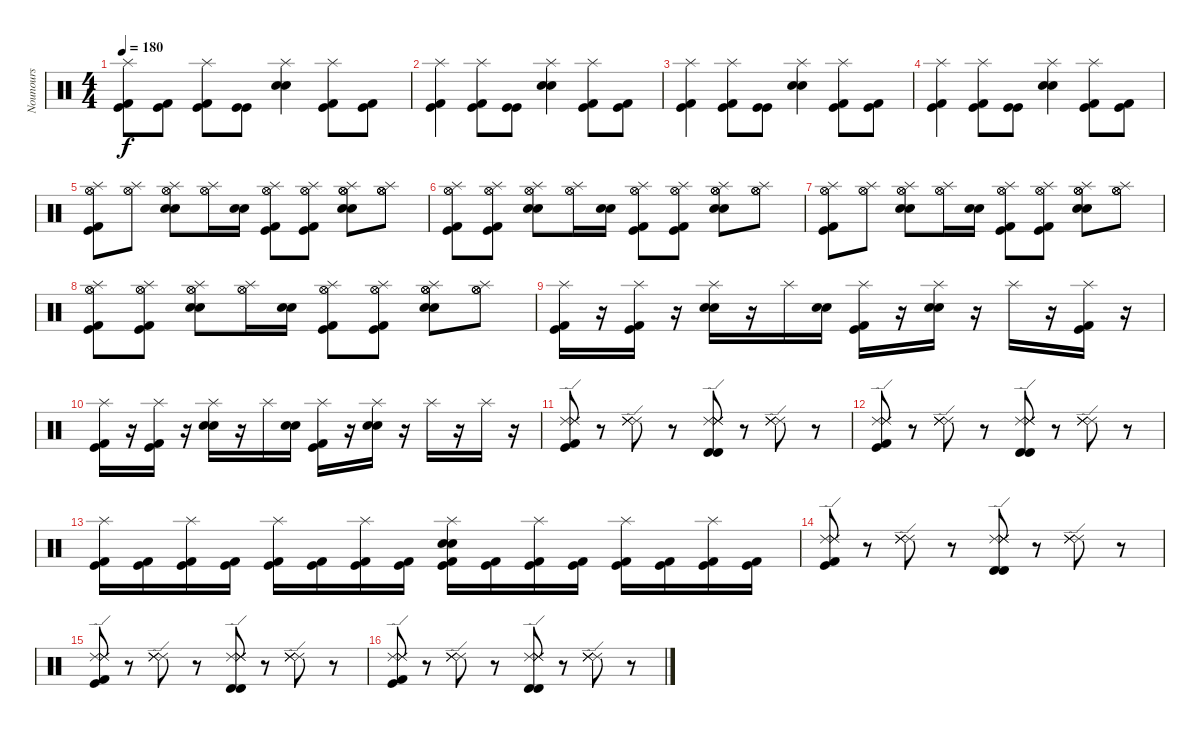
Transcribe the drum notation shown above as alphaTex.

\track ("Nounours" "Nounours") {instrument percussion}
\staff {score}
\articulation defaults
\ts (4 4)
\tempo 180
\clef neutral
\ks c
("Splash (hit)" "Kick (hit) 2" "Kick (hit)").8{dy f} ("Kick (hit) 2" "Kick (hit)").8 ("Splash (hit)" "Kick (hit)" "Kick (hit) 2").8 ("Kick (hit)" "Kick (hit)").8 ("Splash (hit)" "Snare (hit) 2" "Electric Snare (hit)").4 ("Splash (hit)" "Kick (hit) 2" "Kick (hit)").8 ("Kick (hit) 2" "Kick (hit)").8 |
("Splash (hit)" "Kick (hit) 2" "Kick (hit)").4 ("Splash (hit)" "Kick (hit)" "Kick (hit) 2").8 ("Kick (hit)" "Kick (hit)").8 ("Splash (hit)" "Snare (hit) 2" "Electric Snare (hit)").4 ("Splash (hit)" "Kick (hit) 2" "Kick (hit)").8 ("Kick (hit) 2" "Kick (hit)").8 |
("Splash (hit)" "Kick (hit) 2" "Kick (hit)").4 ("Splash (hit)" "Kick (hit)" "Kick (hit) 2").8 ("Kick (hit)" "Kick (hit)").8 ("Splash (hit)" "Snare (hit) 2" "Electric Snare (hit)").4 ("Splash (hit)" "Kick (hit) 2" "Kick (hit)").8 ("Kick (hit) 2" "Kick (hit)").8 |
("Splash (hit)" "Kick (hit) 2" "Kick (hit)").4 ("Splash (hit)" "Kick (hit)" "Kick (hit) 2").8 ("Kick (hit)" "Kick (hit)").8 ("Splash (hit)" "Snare (hit) 2" "Electric Snare (hit)").4 ("Splash (hit)" "Kick (hit) 2" "Kick (hit)").8 ("Kick (hit) 2" "Kick (hit)").8 |
("Hi-Hat (open)" "Hi-Hat (open)" "Splash (hit)" "Kick (hit) 2" "Kick (hit)").8 ("Hi-Hat (open)" "Hi-Hat (open)" "Splash (hit)").8 ("Hi-Hat (open)" "Hi-Hat (open)" "Splash (hit)" "Snare (hit) 2" "Electric Snare (hit)").8 ("Hi-Hat (open)" "Hi-Hat (open)" "Splash (hit)").16 ("Snare (hit) 2" "Electric Snare (hit)").16 ("Hi-Hat (open)" "Hi-Hat (open)" "Splash (hit)" "Kick (hit) 2" "Kick (hit)").8 ("Hi-Hat (open)" "Hi-Hat (open)" "Splash (hit)" "Kick (hit) 2" "Kick (hit)").8 ("Hi-Hat (open)" "Hi-Hat (open)" "Splash (hit)" "Hi-Hat (open)" "Electric Snare (hit)" "Snare (hit) 2").8 ("Hi-Hat (open)" "Splash (hit)" "Hi-Hat (open)" "Hi-Hat (open)").8 |
("Hi-Hat (open)" "Hi-Hat (open)" "Splash (hit)" "Kick (hit) 2" "Kick (hit)").8 ("Hi-Hat (open)" "Hi-Hat (open)" "Splash (hit)" "Kick (hit)" "Kick (hit) 2").8 ("Hi-Hat (open)" "Hi-Hat (open)" "Splash (hit)" "Snare (hit) 2" "Electric Snare (hit)").8 ("Hi-Hat (open)" "Hi-Hat (open)" "Splash (hit)").16 ("Snare (hit) 2" "Electric Snare (hit)").16 ("Hi-Hat (open)" "Hi-Hat (open)" "Splash (hit)" "Kick (hit) 2" "Kick (hit)").8 ("Hi-Hat (open)" "Hi-Hat (open)" "Splash (hit)" "Kick (hit) 2" "Kick (hit)").8 ("Hi-Hat (open)" "Hi-Hat (open)" "Splash (hit)" "Hi-Hat (open)" "Electric Snare (hit)" "Snare (hit) 2").8 ("Hi-Hat (open)" "Splash (hit)" "Hi-Hat (open)" "Hi-Hat (open)").8 |
("Hi-Hat (open)" "Hi-Hat (open)" "Splash (hit)" "Kick (hit) 2" "Kick (hit)").8 ("Hi-Hat (open)" "Hi-Hat (open)" "Splash (hit)").8 ("Hi-Hat (open)" "Hi-Hat (open)" "Splash (hit)" "Snare (hit) 2" "Electric Snare (hit)").8 ("Hi-Hat (open)" "Hi-Hat (open)" "Splash (hit)").16 ("Snare (hit) 2" "Electric Snare (hit)").16 ("Hi-Hat (open)" "Hi-Hat (open)" "Splash (hit)" "Kick (hit) 2" "Kick (hit)").8 ("Hi-Hat (open)" "Hi-Hat (open)" "Splash (hit)" "Kick (hit) 2" "Kick (hit)").8 ("Hi-Hat (open)" "Hi-Hat (open)" "Splash (hit)" "Hi-Hat (open)" "Electric Snare (hit)" "Snare (hit) 2").8 ("Hi-Hat (open)" "Splash (hit)" "Hi-Hat (open)" "Hi-Hat (open)").8 |
("Hi-Hat (open)" "Hi-Hat (open)" "Splash (hit)" "Kick (hit) 2" "Kick (hit)").8 ("Hi-Hat (open)" "Hi-Hat (open)" "Splash (hit)" "Kick (hit)" "Kick (hit) 2").8 ("Hi-Hat (open)" "Hi-Hat (open)" "Splash (hit)" "Snare (hit) 2" "Electric Snare (hit)").8 ("Hi-Hat (open)" "Hi-Hat (open)" "Splash (hit)").16 ("Snare (hit) 2" "Electric Snare (hit)").16 ("Hi-Hat (open)" "Hi-Hat (open)" "Splash (hit)" "Kick (hit) 2" "Kick (hit)").8 ("Hi-Hat (open)" "Hi-Hat (open)" "Splash (hit)" "Kick (hit) 2" "Kick (hit)").8 ("Hi-Hat (open)" "Hi-Hat (open)" "Splash (hit)" "Hi-Hat (open)" "Electric Snare (hit)" "Snare (hit) 2").8 ("Hi-Hat (open)" "Splash (hit)" "Hi-Hat (open)" "Hi-Hat (open)").8 |
("Splash (hit)" "Kick (hit) 2" "Kick (hit)").16 r.16 ("Splash (hit)" "Kick (hit) 2" "Kick (hit)").16 r.16 ("Splash (hit)" "Snare (hit) 2" "Electric Snare (hit)").16 r.16 "Splash (hit)".16 ("Snare (hit) 2" "Electric Snare (hit)").16 ("Splash (hit)" "Kick (hit)" "Kick (hit) 2").16 r.16 ("Splash (hit)" "Electric Snare (hit)" "Snare (hit) 2").16 r.16 "Splash (hit)".16 r.16 ("Splash (hit)" "Kick (hit) 2" "Kick (hit)").16 r.16 |
("Splash (hit)" "Kick (hit) 2" "Kick (hit)").16 r.16 ("Splash (hit)" "Kick (hit) 2" "Kick (hit)").16 r.16 ("Splash (hit)" "Snare (hit) 2" "Electric Snare (hit)").16 r.16 "Splash (hit)".16 ("Snare (hit) 2" "Electric Snare (hit)").16 ("Splash (hit)" "Kick (hit)" "Kick (hit) 2").16 r.16 ("Splash (hit)" "Electric Snare (hit)" "Snare (hit) 2").16 r.16 "Splash (hit)".16 r.16 "Splash (hit)".16 r.16 |
("Ride (edge) 2" "Ride (edge) 2" "Ride (edge) 2" "Kick (hit) 2" "Kick (hit)").8 r.8 ("Ride (edge) 2" "Ride (edge) 2" "Ride (edge) 2" "Ride (edge) 2").8 r.8 ("Ride (edge) 2" "Ride (edge) 2" "Timbale high (hit)" "Timbale high (hit)" "Ride (edge) 2" "Ride (edge) 2").8 r.8 ("Ride (edge) 2" "Ride (edge) 2" "Ride (edge) 2" "Ride (edge) 2").8 r.8 |
("Ride (edge) 2" "Ride (edge) 2" "Ride (edge) 2" "Kick (hit) 2" "Kick (hit)").8 r.8 ("Ride (edge) 2" "Ride (edge) 2" "Ride (edge) 2" "Ride (edge) 2").8 r.8 ("Ride (edge) 2" "Ride (edge) 2" "Timbale high (hit)" "Timbale high (hit)" "Ride (edge) 2" "Ride (edge) 2").8 r.8 ("Ride (edge) 2" "Ride (edge) 2" "Ride (edge) 2" "Ride (edge) 2").8 r.8 |
("Splash (hit)" "Kick (hit) 2" "Kick (hit)").16 ("Kick (hit)" "Kick (hit) 2").16 ("Splash (hit)" "Kick (hit)" "Kick (hit) 2").16 ("Kick (hit) 2" "Kick (hit)").16 ("Splash (hit)" "Kick (hit) 2" "Kick (hit)").16 ("Kick (hit) 2" "Kick (hit)").16 ("Splash (hit)" "Kick (hit)" "Kick (hit) 2").16 ("Kick (hit)" "Kick (hit) 2").16 ("Splash (hit)" "Electric Snare (hit)" "Snare (hit) 2" "Kick (hit)" "Kick (hit) 2").16 ("Kick (hit)" "Kick (hit) 2").16 ("Splash (hit)" "Kick (hit) 2" "Kick (hit)").16 ("Kick (hit)" "Kick (hit) 2").16 ("Splash (hit)" "Kick (hit) 2" "Kick (hit)").16 ("Kick (hit) 2" "Kick (hit)").16 ("Splash (hit)" "Kick (hit)" "Kick (hit) 2").16 ("Kick (hit)" "Kick (hit) 2").16 |
("Ride (edge) 2" "Ride (edge) 2" "Ride (edge) 2" "Kick (hit) 2" "Kick (hit)").8 r.8 ("Ride (edge) 2" "Ride (edge) 2" "Ride (edge) 2" "Ride (edge) 2").8 r.8 ("Ride (edge) 2" "Ride (edge) 2" "Timbale high (hit)" "Timbale high (hit)" "Ride (edge) 2" "Ride (edge) 2").8 r.8 ("Ride (edge) 2" "Ride (edge) 2" "Ride (edge) 2" "Ride (edge) 2").8 r.8 |
("Ride (edge) 2" "Ride (edge) 2" "Ride (edge) 2" "Kick (hit) 2" "Kick (hit)").8 r.8 ("Ride (edge) 2" "Ride (edge) 2" "Ride (edge) 2" "Ride (edge) 2").8 r.8 ("Ride (edge) 2" "Ride (edge) 2" "Timbale high (hit)" "Timbale high (hit)" "Ride (edge) 2" "Ride (edge) 2").8 r.8 ("Ride (edge) 2" "Ride (edge) 2" "Ride (edge) 2" "Ride (edge) 2").8 r.8 |
("Ride (edge) 2" "Ride (edge) 2" "Ride (edge) 2" "Kick (hit) 2" "Kick (hit)").8 r.8 ("Ride (edge) 2" "Ride (edge) 2" "Ride (edge) 2" "Ride (edge) 2").8 r.8 ("Ride (edge) 2" "Ride (edge) 2" "Timbale high (hit)" "Timbale high (hit)" "Ride (edge) 2" "Ride (edge) 2").8 r.8 ("Ride (edge) 2" "Ride (edge) 2" "Ride (edge) 2" "Ride (edge) 2").8 r.8
